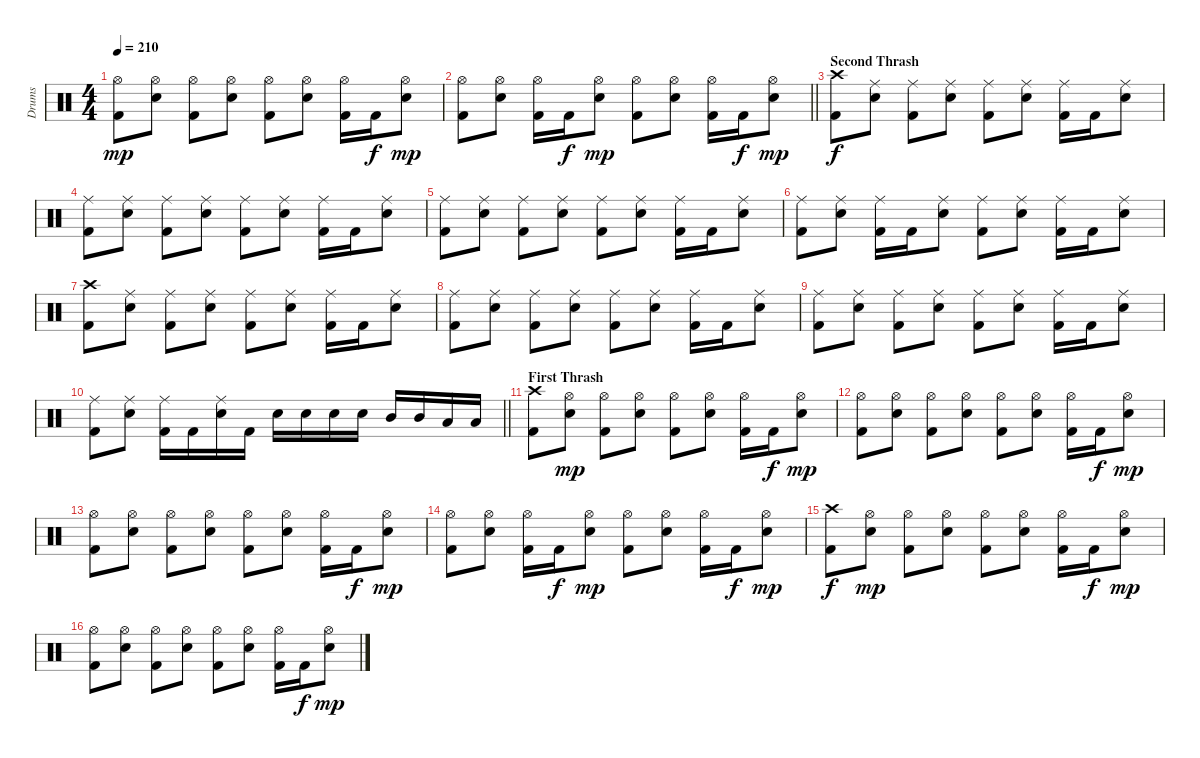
\track ("Drums" "Drums") {instrument percussion}
\staff {score}
\articulation defaults
\ts (4 4)
\tempo 210
\clef neutral
\ks c
("Hi-Hat (open)" "Kick (hit) 2").8{dy mp} ("Hi-Hat (open)" "Snare (hit) 2").8 ("Hi-Hat (open)" "Kick (hit) 2").8 ("Hi-Hat (open)" "Snare (hit) 2").8 ("Hi-Hat (open)" "Kick (hit) 2").8 ("Hi-Hat (open)" "Snare (hit) 2").8 ("Hi-Hat (open)" "Kick (hit) 2").16 "Kick (hit) 2".16{dy f} ("Hi-Hat (open)" "Snare (hit) 2").8{dy mp} |
\barLineRight lightlight
("Hi-Hat (open)" "Kick (hit) 2").8 ("Hi-Hat (open)" "Snare (hit) 2").8 ("Hi-Hat (open)" "Kick (hit) 2").16 "Kick (hit) 2".16{dy f} ("Hi-Hat (open)" "Snare (hit) 2").8{dy mp} ("Hi-Hat (open)" "Kick (hit) 2").8 ("Hi-Hat (open)" "Snare (hit) 2").8 ("Hi-Hat (open)" "Kick (hit) 2").16 "Kick (hit) 2".16{dy f} ("Hi-Hat (open)" "Snare (hit) 2").8{dy mp} |
\section ("" "Second Thrash")
("Crash high (hit)" "Kick (hit) 2").8{dy f} ("Ride (middle)" "Snare (hit) 2").8 ("Ride (middle)" "Kick (hit) 2").8 ("Ride (middle)" "Snare (hit) 2").8 ("Ride (middle)" "Kick (hit) 2").8 ("Ride (middle)" "Snare (hit) 2").8 ("Ride (middle)" "Kick (hit) 2").16 "Kick (hit) 2".16 ("Ride (middle)" "Snare (hit) 2").8 |
("Ride (middle)" "Kick (hit) 2").8 ("Ride (middle)" "Snare (hit) 2").8 ("Ride (middle)" "Kick (hit) 2").8 ("Ride (middle)" "Snare (hit) 2").8 ("Ride (middle)" "Kick (hit) 2").8 ("Ride (middle)" "Snare (hit) 2").8 ("Ride (middle)" "Kick (hit) 2").16 "Kick (hit) 2".16 ("Ride (middle)" "Snare (hit) 2").8 |
("Ride (middle)" "Kick (hit) 2").8 ("Ride (middle)" "Snare (hit) 2").8 ("Ride (middle)" "Kick (hit) 2").8 ("Ride (middle)" "Snare (hit) 2").8 ("Ride (middle)" "Kick (hit) 2").8 ("Ride (middle)" "Snare (hit) 2").8 ("Ride (middle)" "Kick (hit) 2").16 "Kick (hit) 2".16 ("Ride (middle)" "Snare (hit) 2").8 |
("Ride (middle)" "Kick (hit) 2").8 ("Ride (middle)" "Snare (hit) 2").8 ("Ride (middle)" "Kick (hit) 2").16 "Kick (hit) 2".16 ("Ride (middle)" "Snare (hit) 2").8 ("Ride (middle)" "Kick (hit) 2").8 ("Ride (middle)" "Snare (hit) 2").8 ("Ride (middle)" "Kick (hit) 2").16 "Kick (hit) 2".16 ("Ride (middle)" "Snare (hit) 2").8 |
("Crash high (hit)" "Kick (hit) 2").8 ("Ride (middle)" "Snare (hit) 2").8 ("Ride (middle)" "Kick (hit) 2").8 ("Ride (middle)" "Snare (hit) 2").8 ("Ride (middle)" "Kick (hit) 2").8 ("Ride (middle)" "Snare (hit) 2").8 ("Ride (middle)" "Kick (hit) 2").16 "Kick (hit) 2".16 ("Ride (middle)" "Snare (hit) 2").8 |
("Ride (middle)" "Kick (hit) 2").8 ("Ride (middle)" "Snare (hit) 2").8 ("Ride (middle)" "Kick (hit) 2").8 ("Ride (middle)" "Snare (hit) 2").8 ("Ride (middle)" "Kick (hit) 2").8 ("Ride (middle)" "Snare (hit) 2").8 ("Ride (middle)" "Kick (hit) 2").16 "Kick (hit) 2".16 ("Ride (middle)" "Snare (hit) 2").8 |
("Ride (middle)" "Kick (hit) 2").8 ("Ride (middle)" "Snare (hit) 2").8 ("Ride (middle)" "Kick (hit) 2").8 ("Ride (middle)" "Snare (hit) 2").8 ("Ride (middle)" "Kick (hit) 2").8 ("Ride (middle)" "Snare (hit) 2").8 ("Ride (middle)" "Kick (hit) 2").16 "Kick (hit) 2".16 ("Ride (middle)" "Snare (hit) 2").8 |
\barLineRight lightlight
("Ride (middle)" "Kick (hit) 2").8 ("Ride (middle)" "Snare (hit) 2").8 ("Ride (middle)" "Kick (hit) 2").16 "Kick (hit) 2".16 ("Ride (middle)" "Snare (hit) 2").16 "Kick (hit) 2".16 "Snare (hit) 2".16 "Snare (hit) 2".16 "Snare (hit) 2".16 "Snare (hit) 2".16 "Mid Tom (hit)".16 "Mid Tom (hit)".16 "Low Tom (hit)".16 "Low Tom (hit)".16 |
\section ("" "First Thrash")
("Crash high (hit)" "Kick (hit) 2").8 ("Hi-Hat (open)" "Snare (hit) 2").8{dy mp} ("Hi-Hat (open)" "Kick (hit) 2").8 ("Hi-Hat (open)" "Snare (hit) 2").8 ("Hi-Hat (open)" "Kick (hit) 2").8 ("Hi-Hat (open)" "Snare (hit) 2").8 ("Hi-Hat (open)" "Kick (hit) 2").16 "Kick (hit) 2".16{dy f} ("Hi-Hat (open)" "Snare (hit) 2").8{dy mp} |
("Hi-Hat (open)" "Kick (hit) 2").8 ("Hi-Hat (open)" "Snare (hit) 2").8 ("Hi-Hat (open)" "Kick (hit) 2").8 ("Hi-Hat (open)" "Snare (hit) 2").8 ("Hi-Hat (open)" "Kick (hit) 2").8 ("Hi-Hat (open)" "Snare (hit) 2").8 ("Hi-Hat (open)" "Kick (hit) 2").16 "Kick (hit) 2".16{dy f} ("Hi-Hat (open)" "Snare (hit) 2").8{dy mp} |
("Hi-Hat (open)" "Kick (hit) 2").8 ("Hi-Hat (open)" "Snare (hit) 2").8 ("Hi-Hat (open)" "Kick (hit) 2").8 ("Hi-Hat (open)" "Snare (hit) 2").8 ("Hi-Hat (open)" "Kick (hit) 2").8 ("Hi-Hat (open)" "Snare (hit) 2").8 ("Hi-Hat (open)" "Kick (hit) 2").16 "Kick (hit) 2".16{dy f} ("Hi-Hat (open)" "Snare (hit) 2").8{dy mp} |
("Hi-Hat (open)" "Kick (hit) 2").8 ("Hi-Hat (open)" "Snare (hit) 2").8 ("Hi-Hat (open)" "Kick (hit) 2").16 "Kick (hit) 2".16{dy f} ("Hi-Hat (open)" "Snare (hit) 2").8{dy mp} ("Hi-Hat (open)" "Kick (hit) 2").8 ("Hi-Hat (open)" "Snare (hit) 2").8 ("Hi-Hat (open)" "Kick (hit) 2").16 "Kick (hit) 2".16{dy f} ("Hi-Hat (open)" "Snare (hit) 2").8{dy mp} |
("Crash high (hit)" "Kick (hit) 2").8{dy f} ("Hi-Hat (open)" "Snare (hit) 2").8{dy mp} ("Hi-Hat (open)" "Kick (hit) 2").8 ("Hi-Hat (open)" "Snare (hit) 2").8 ("Hi-Hat (open)" "Kick (hit) 2").8 ("Hi-Hat (open)" "Snare (hit) 2").8 ("Hi-Hat (open)" "Kick (hit) 2").16 "Kick (hit) 2".16{dy f} ("Hi-Hat (open)" "Snare (hit) 2").8{dy mp} |
("Hi-Hat (open)" "Kick (hit) 2").8 ("Hi-Hat (open)" "Snare (hit) 2").8 ("Hi-Hat (open)" "Kick (hit) 2").8 ("Hi-Hat (open)" "Snare (hit) 2").8 ("Hi-Hat (open)" "Kick (hit) 2").8 ("Hi-Hat (open)" "Snare (hit) 2").8 ("Hi-Hat (open)" "Kick (hit) 2").16 "Kick (hit) 2".16{dy f} ("Hi-Hat (open)" "Snare (hit) 2").8{dy mp}
